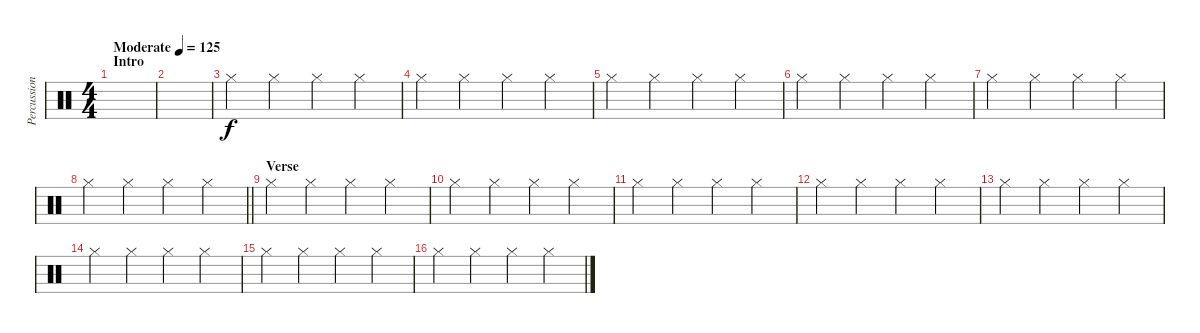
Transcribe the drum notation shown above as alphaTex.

\track ("Percussion" "Percussion") {instrument percussion}
\staff {score}
\articulation defaults
\ts (4 4)
\section ("" "Intro")
\tempo (125 "Moderate")
\clef neutral
\ks c
|
|
"Hi-Hat (closed)".4 "Hi-Hat (closed)".4 "Hi-Hat (closed)".4 "Hi-Hat (closed)".4 |
"Hi-Hat (closed)".4 "Hi-Hat (closed)".4 "Hi-Hat (closed)".4 "Hi-Hat (closed)".4 |
"Hi-Hat (closed)".4 "Hi-Hat (closed)".4 "Hi-Hat (closed)".4 "Hi-Hat (closed)".4 |
"Hi-Hat (closed)".4 "Hi-Hat (closed)".4 "Hi-Hat (closed)".4 "Hi-Hat (closed)".4 |
"Hi-Hat (closed)".4 "Hi-Hat (closed)".4 "Hi-Hat (closed)".4 "Hi-Hat (closed)".4 |
\barLineRight lightlight "Hi-Hat (closed)".4 "Hi-Hat (closed)".4 "Hi-Hat (closed)".4 "Hi-Hat (closed)".4
|
\section ("" "Verse")
"Hi-Hat (closed)".4 "Hi-Hat (closed)".4 "Hi-Hat (closed)".4 "Hi-Hat (closed)".4 |
"Hi-Hat (closed)".4 "Hi-Hat (closed)".4 "Hi-Hat (closed)".4 "Hi-Hat (closed)".4 |
"Hi-Hat (closed)".4 "Hi-Hat (closed)".4 "Hi-Hat (closed)".4 "Hi-Hat (closed)".4 |
"Hi-Hat (closed)".4 "Hi-Hat (closed)".4 "Hi-Hat (closed)".4 "Hi-Hat (closed)".4 |
"Hi-Hat (closed)".4 "Hi-Hat (closed)".4 "Hi-Hat (closed)".4 "Hi-Hat (closed)".4 |
"Hi-Hat (closed)".4 "Hi-Hat (closed)".4 "Hi-Hat (closed)".4 "Hi-Hat (closed)".4 |
"Hi-Hat (closed)".4 "Hi-Hat (closed)".4 "Hi-Hat (closed)".4 "Hi-Hat (closed)".4 |
"Hi-Hat (closed)".4 "Hi-Hat (closed)".4 "Hi-Hat (closed)".4 "Hi-Hat (closed)".4
